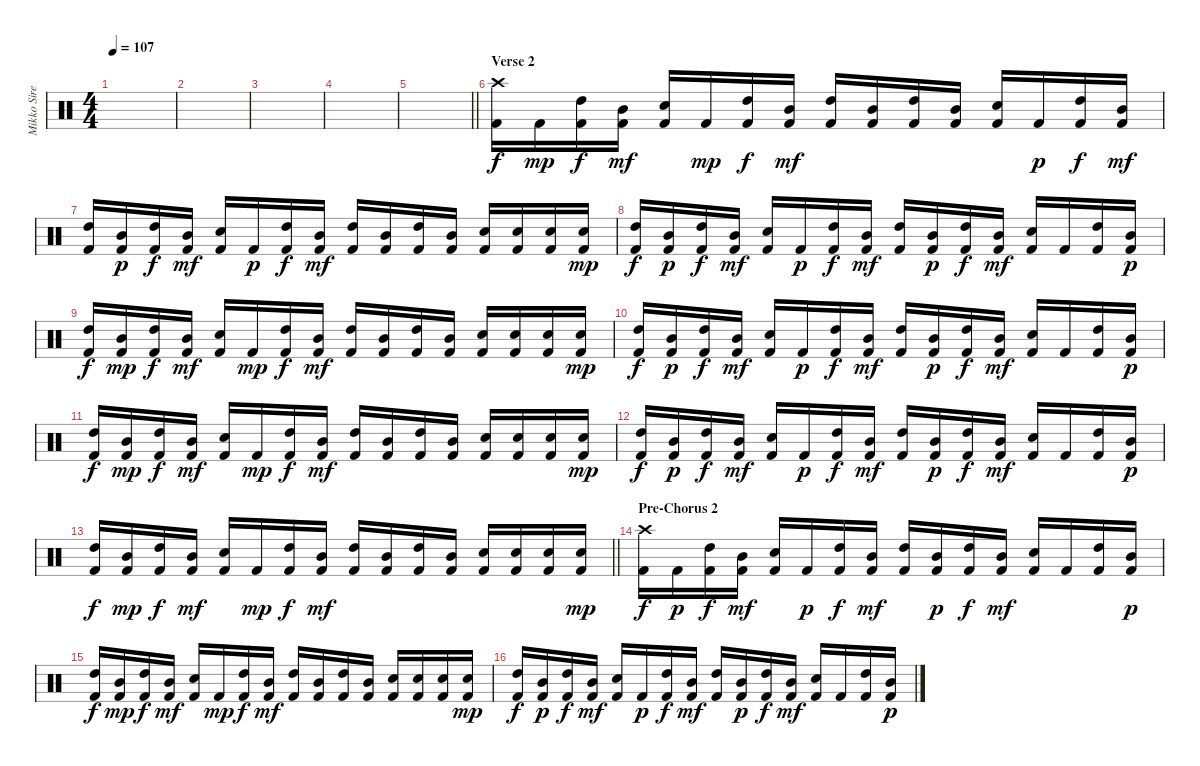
\track ("Mikko Siren" "Mikko Sire") {instrument percussion}
\staff {score}
\articulation defaults
\ts (4 4)
\tempo 107
\clef neutral
\ks c
|
|
|
|
\barLineRight lightlight
|
\section ("" "Verse 2")
("Kick (hit) 2" "Crash high (hit)").16{dy f balance 0} "Kick (hit) 2".16{dy mp} ("Kick (hit) 2" "High Tom (hit)").16{dy f} ("Kick (hit) 2" "Mid Tom (hit)").16{dy mf} ("Kick (hit) 2" "Electric Snare (hit)").16 "Kick (hit) 2".16{dy mp} ("Kick (hit) 2" "High Tom (hit)").16{dy f} ("Kick (hit) 2" "Mid Tom (hit)").16{dy mf} ("Kick (hit) 2" "High Tom (hit)").16 ("Kick (hit) 2" "Mid Tom (hit)").16 ("Kick (hit) 2" "High Tom (hit)").16 ("Kick (hit) 2" "Mid Tom (hit)").16 ("Kick (hit) 2" "Electric Snare (hit)").16 "Kick (hit) 2".16{dy p} ("Kick (hit) 2" "High Tom (hit)").16{dy f} ("Kick (hit) 2" "Mid Tom (hit)").16{dy mf} |
("Kick (hit) 2" "High Tom (hit)").16 ("Kick (hit) 2" "Mid Tom (hit)").16{dy p} ("Kick (hit) 2" "High Tom (hit)").16{dy f} ("Kick (hit) 2" "Mid Tom (hit)").16{dy mf} ("Kick (hit) 2" "Electric Snare (hit)").16 "Kick (hit) 2".16{dy p} ("Kick (hit) 2" "High Tom (hit)").16{dy f} ("Kick (hit) 2" "Mid Tom (hit)").16{dy mf} ("Kick (hit) 2" "High Tom (hit)").16 ("Kick (hit) 2" "Mid Tom (hit)").16 ("Kick (hit) 2" "High Tom (hit)").16 ("Kick (hit) 2" "Mid Tom (hit)").16 ("Kick (hit) 2" "Electric Snare (hit)").16 ("Kick (hit) 2" "Electric Snare (hit)").16 ("Kick (hit) 2" "Electric Snare (hit)").16 ("Kick (hit) 2" "Electric Snare (hit)").16{dy mp} |
("Kick (hit) 2" "High Tom (hit)").16{dy f} ("Kick (hit) 2" "Mid Tom (hit)").16{dy p} ("Kick (hit) 2" "High Tom (hit)").16{dy f} ("Kick (hit) 2" "Mid Tom (hit)").16{dy mf} ("Kick (hit) 2" "Electric Snare (hit)").16 "Kick (hit) 2".16{dy p} ("Kick (hit) 2" "High Tom (hit)").16{dy f} ("Kick (hit) 2" "Mid Tom (hit)").16{dy mf} ("Kick (hit) 2" "High Tom (hit)").16 ("Kick (hit) 2" "Mid Tom (hit)").16{dy p} ("Kick (hit) 2" "High Tom (hit)").16{dy f} ("Kick (hit) 2" "Mid Tom (hit)").16{dy mf} ("Kick (hit) 2" "Electric Snare (hit)").16 "Kick (hit) 2".16 ("Kick (hit) 2" "High Tom (hit)").16 ("Kick (hit) 2" "Mid Tom (hit)").16{dy p} |
("Kick (hit) 2" "High Tom (hit)").16{dy f} ("Kick (hit) 2" "Mid Tom (hit)").16{dy mp} ("Kick (hit) 2" "High Tom (hit)").16{dy f} ("Kick (hit) 2" "Mid Tom (hit)").16{dy mf} ("Kick (hit) 2" "Electric Snare (hit)").16 "Kick (hit) 2".16{dy mp} ("Kick (hit) 2" "High Tom (hit)").16{dy f} ("Kick (hit) 2" "Mid Tom (hit)").16{dy mf} ("Kick (hit) 2" "High Tom (hit)").16 ("Kick (hit) 2" "Mid Tom (hit)").16 ("Kick (hit) 2" "High Tom (hit)").16 ("Kick (hit) 2" "Mid Tom (hit)").16 ("Kick (hit) 2" "Electric Snare (hit)").16 ("Kick (hit) 2" "Electric Snare (hit)").16 ("Kick (hit) 2" "Electric Snare (hit)").16 ("Kick (hit) 2" "Electric Snare (hit)").16{dy mp} |
("Kick (hit) 2" "High Tom (hit)").16{dy f} ("Kick (hit) 2" "Mid Tom (hit)").16{dy p} ("Kick (hit) 2" "High Tom (hit)").16{dy f} ("Kick (hit) 2" "Mid Tom (hit)").16{dy mf} ("Kick (hit) 2" "Electric Snare (hit)").16 "Kick (hit) 2".16{dy p} ("Kick (hit) 2" "High Tom (hit)").16{dy f} ("Kick (hit) 2" "Mid Tom (hit)").16{dy mf} ("Kick (hit) 2" "High Tom (hit)").16 ("Kick (hit) 2" "Mid Tom (hit)").16{dy p} ("Kick (hit) 2" "High Tom (hit)").16{dy f} ("Kick (hit) 2" "Mid Tom (hit)").16{dy mf} ("Kick (hit) 2" "Electric Snare (hit)").16 "Kick (hit) 2".16 ("Kick (hit) 2" "High Tom (hit)").16 ("Kick (hit) 2" "Mid Tom (hit)").16{dy p} |
("Kick (hit) 2" "High Tom (hit)").16{dy f} ("Kick (hit) 2" "Mid Tom (hit)").16{dy mp} ("Kick (hit) 2" "High Tom (hit)").16{dy f} ("Kick (hit) 2" "Mid Tom (hit)").16{dy mf} ("Kick (hit) 2" "Electric Snare (hit)").16 "Kick (hit) 2".16{dy mp} ("Kick (hit) 2" "High Tom (hit)").16{dy f} ("Kick (hit) 2" "Mid Tom (hit)").16{dy mf} ("Kick (hit) 2" "High Tom (hit)").16 ("Kick (hit) 2" "Mid Tom (hit)").16 ("Kick (hit) 2" "High Tom (hit)").16 ("Kick (hit) 2" "Mid Tom (hit)").16 ("Kick (hit) 2" "Electric Snare (hit)").16 ("Kick (hit) 2" "Electric Snare (hit)").16 ("Kick (hit) 2" "Electric Snare (hit)").16 ("Kick (hit) 2" "Electric Snare (hit)").16{dy mp} |
("Kick (hit) 2" "High Tom (hit)").16{dy f} ("Kick (hit) 2" "Mid Tom (hit)").16{dy p} ("Kick (hit) 2" "High Tom (hit)").16{dy f} ("Kick (hit) 2" "Mid Tom (hit)").16{dy mf} ("Kick (hit) 2" "Electric Snare (hit)").16 "Kick (hit) 2".16{dy p} ("Kick (hit) 2" "High Tom (hit)").16{dy f} ("Kick (hit) 2" "Mid Tom (hit)").16{dy mf} ("Kick (hit) 2" "High Tom (hit)").16 ("Kick (hit) 2" "Mid Tom (hit)").16{dy p} ("Kick (hit) 2" "High Tom (hit)").16{dy f} ("Kick (hit) 2" "Mid Tom (hit)").16{dy mf} ("Kick (hit) 2" "Electric Snare (hit)").16 "Kick (hit) 2".16 ("Kick (hit) 2" "High Tom (hit)").16 ("Kick (hit) 2" "Mid Tom (hit)").16{dy p} |
\barLineRight lightlight
("Kick (hit) 2" "High Tom (hit)").16{dy f} ("Kick (hit) 2" "Mid Tom (hit)").16{dy mp} ("Kick (hit) 2" "High Tom (hit)").16{dy f} ("Kick (hit) 2" "Mid Tom (hit)").16{dy mf} ("Kick (hit) 2" "Electric Snare (hit)").16 "Kick (hit) 2".16{dy mp} ("Kick (hit) 2" "High Tom (hit)").16{dy f} ("Kick (hit) 2" "Mid Tom (hit)").16{dy mf} ("Kick (hit) 2" "High Tom (hit)").16 ("Kick (hit) 2" "Mid Tom (hit)").16 ("Kick (hit) 2" "High Tom (hit)").16 ("Kick (hit) 2" "Mid Tom (hit)").16 ("Kick (hit) 2" "Electric Snare (hit)").16 ("Kick (hit) 2" "Electric Snare (hit)").16 ("Kick (hit) 2" "Electric Snare (hit)").16 ("Kick (hit) 2" "Electric Snare (hit)").16{dy mp} |
\section ("" "Pre-Chorus 2")
("Kick (hit) 2" "Crash high (hit)").16{dy f balance 8} "Kick (hit) 2".16{dy p} ("Kick (hit) 2" "High Tom (hit)").16{dy f} ("Kick (hit) 2" "Mid Tom (hit)").16{dy mf} ("Kick (hit) 2" "Electric Snare (hit)").16 "Kick (hit) 2".16{dy p} ("Kick (hit) 2" "High Tom (hit)").16{dy f} ("Kick (hit) 2" "Mid Tom (hit)").16{dy mf} ("Kick (hit) 2" "High Tom (hit)").16 ("Kick (hit) 2" "Mid Tom (hit)").16{dy p} ("Kick (hit) 2" "High Tom (hit)").16{dy f} ("Kick (hit) 2" "Mid Tom (hit)").16{dy mf} ("Kick (hit) 2" "Electric Snare (hit)").16 "Kick (hit) 2".16 ("Kick (hit) 2" "High Tom (hit)").16 ("Kick (hit) 2" "Mid Tom (hit)").16{dy p} |
("Kick (hit) 2" "High Tom (hit)").16{dy f} ("Kick (hit) 2" "Mid Tom (hit)").16{dy mp} ("Kick (hit) 2" "High Tom (hit)").16{dy f} ("Kick (hit) 2" "Mid Tom (hit)").16{dy mf} ("Kick (hit) 2" "Electric Snare (hit)").16 "Kick (hit) 2".16{dy mp} ("Kick (hit) 2" "High Tom (hit)").16{dy f} ("Kick (hit) 2" "Mid Tom (hit)").16{dy mf} ("Kick (hit) 2" "High Tom (hit)").16 ("Kick (hit) 2" "Mid Tom (hit)").16 ("Kick (hit) 2" "High Tom (hit)").16 ("Kick (hit) 2" "Mid Tom (hit)").16 ("Kick (hit) 2" "Electric Snare (hit)").16 ("Kick (hit) 2" "Electric Snare (hit)").16 ("Kick (hit) 2" "Electric Snare (hit)").16 ("Kick (hit) 2" "Electric Snare (hit)").16{dy mp} |
("Kick (hit) 2" "High Tom (hit)").16{dy f} ("Kick (hit) 2" "Mid Tom (hit)").16{dy p} ("Kick (hit) 2" "High Tom (hit)").16{dy f} ("Kick (hit) 2" "Mid Tom (hit)").16{dy mf} ("Kick (hit) 2" "Electric Snare (hit)").16 "Kick (hit) 2".16{dy p} ("Kick (hit) 2" "High Tom (hit)").16{dy f} ("Kick (hit) 2" "Mid Tom (hit)").16{dy mf} ("Kick (hit) 2" "High Tom (hit)").16 ("Kick (hit) 2" "Mid Tom (hit)").16{dy p} ("Kick (hit) 2" "High Tom (hit)").16{dy f} ("Kick (hit) 2" "Mid Tom (hit)").16{dy mf} ("Kick (hit) 2" "Electric Snare (hit)").16 "Kick (hit) 2".16 ("Kick (hit) 2" "High Tom (hit)").16 ("Kick (hit) 2" "Mid Tom (hit)").16{dy p}
